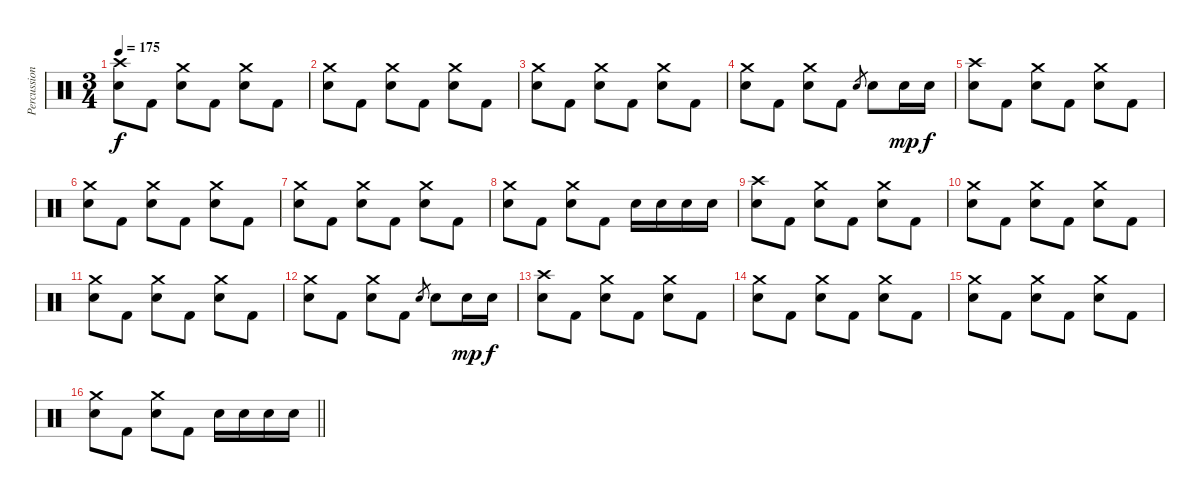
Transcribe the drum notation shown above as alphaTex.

\track ("Percussion" "Percussion") {instrument percussion}
\staff {score}
\articulation defaults
\ts (3 4)
\tempo 175
\clef neutral
\ks c
("Crash high (hit)" "Electric Snare (hit)").8{dy f} "Kick (hit) 2".8 ("Crash medium (hit)" "Electric Snare (hit)").8 "Kick (hit) 2".8 ("Crash medium (hit)" "Electric Snare (hit)").8 "Kick (hit) 2".8 |
("Crash medium (hit)" "Electric Snare (hit)").8 "Kick (hit) 2".8 ("Crash medium (hit)" "Electric Snare (hit)").8 "Kick (hit) 2".8 ("Crash medium (hit)" "Electric Snare (hit)").8 "Kick (hit) 2".8 |
("Crash medium (hit)" "Electric Snare (hit)").8 "Kick (hit) 2".8 ("Crash medium (hit)" "Electric Snare (hit)").8 "Kick (hit) 2".8 ("Crash medium (hit)" "Electric Snare (hit)").8 "Kick (hit) 2".8 |
("Crash medium (hit)" "Electric Snare (hit)").8 "Kick (hit) 2".8 ("Crash medium (hit)" "Electric Snare (hit)").8 "Kick (hit) 2".8 "Electric Snare (hit)".8{gr} "Electric Snare (hit)".8 "Electric Snare (hit)".16{dy mp} "Electric Snare (hit)".16{dy f} |
("Crash high (hit)" "Electric Snare (hit)").8 "Kick (hit) 2".8 ("Crash medium (hit)" "Electric Snare (hit)").8 "Kick (hit) 2".8 ("Crash medium (hit)" "Electric Snare (hit)").8 "Kick (hit) 2".8 |
("Crash medium (hit)" "Electric Snare (hit)").8 "Kick (hit) 2".8 ("Crash medium (hit)" "Electric Snare (hit)").8 "Kick (hit) 2".8 ("Crash medium (hit)" "Electric Snare (hit)").8 "Kick (hit) 2".8 |
("Crash medium (hit)" "Electric Snare (hit)").8 "Kick (hit) 2".8 ("Crash medium (hit)" "Electric Snare (hit)").8 "Kick (hit) 2".8 ("Crash medium (hit)" "Electric Snare (hit)").8 "Kick (hit) 2".8 |
("Crash medium (hit)" "Electric Snare (hit)").8 "Kick (hit) 2".8 ("Crash medium (hit)" "Electric Snare (hit)").8 "Kick (hit) 2".8 "Electric Snare (hit)".16 "Electric Snare (hit)".16 "Electric Snare (hit)".16 "Electric Snare (hit)".16 |
("Crash high (hit)" "Electric Snare (hit)").8 "Kick (hit) 2".8 ("Crash medium (hit)" "Electric Snare (hit)").8 "Kick (hit) 2".8 ("Crash medium (hit)" "Electric Snare (hit)").8 "Kick (hit) 2".8 |
("Crash medium (hit)" "Electric Snare (hit)").8 "Kick (hit) 2".8 ("Crash medium (hit)" "Electric Snare (hit)").8 "Kick (hit) 2".8 ("Crash medium (hit)" "Electric Snare (hit)").8 "Kick (hit) 2".8 |
("Crash medium (hit)" "Electric Snare (hit)").8 "Kick (hit) 2".8 ("Crash medium (hit)" "Electric Snare (hit)").8 "Kick (hit) 2".8 ("Crash medium (hit)" "Electric Snare (hit)").8 "Kick (hit) 2".8 |
("Crash medium (hit)" "Electric Snare (hit)").8 "Kick (hit) 2".8 ("Crash medium (hit)" "Electric Snare (hit)").8 "Kick (hit) 2".8 "Electric Snare (hit)".8{gr} "Electric Snare (hit)".8 "Electric Snare (hit)".16{dy mp} "Electric Snare (hit)".16{dy f} |
("Crash high (hit)" "Electric Snare (hit)").8 "Kick (hit) 2".8 ("Crash medium (hit)" "Electric Snare (hit)").8 "Kick (hit) 2".8 ("Crash medium (hit)" "Electric Snare (hit)").8 "Kick (hit) 2".8 |
("Crash medium (hit)" "Electric Snare (hit)").8 "Kick (hit) 2".8 ("Crash medium (hit)" "Electric Snare (hit)").8 "Kick (hit) 2".8 ("Crash medium (hit)" "Electric Snare (hit)").8 "Kick (hit) 2".8 |
("Crash medium (hit)" "Electric Snare (hit)").8 "Kick (hit) 2".8 ("Crash medium (hit)" "Electric Snare (hit)").8 "Kick (hit) 2".8 ("Crash medium (hit)" "Electric Snare (hit)").8 "Kick (hit) 2".8 |
\barLineRight lightlight
("Crash medium (hit)" "Electric Snare (hit)").8 "Kick (hit) 2".8 ("Crash medium (hit)" "Electric Snare (hit)").8 "Kick (hit) 2".8 "Electric Snare (hit)".16 "Electric Snare (hit)".16 "Electric Snare (hit)".16 "Electric Snare (hit)".16
